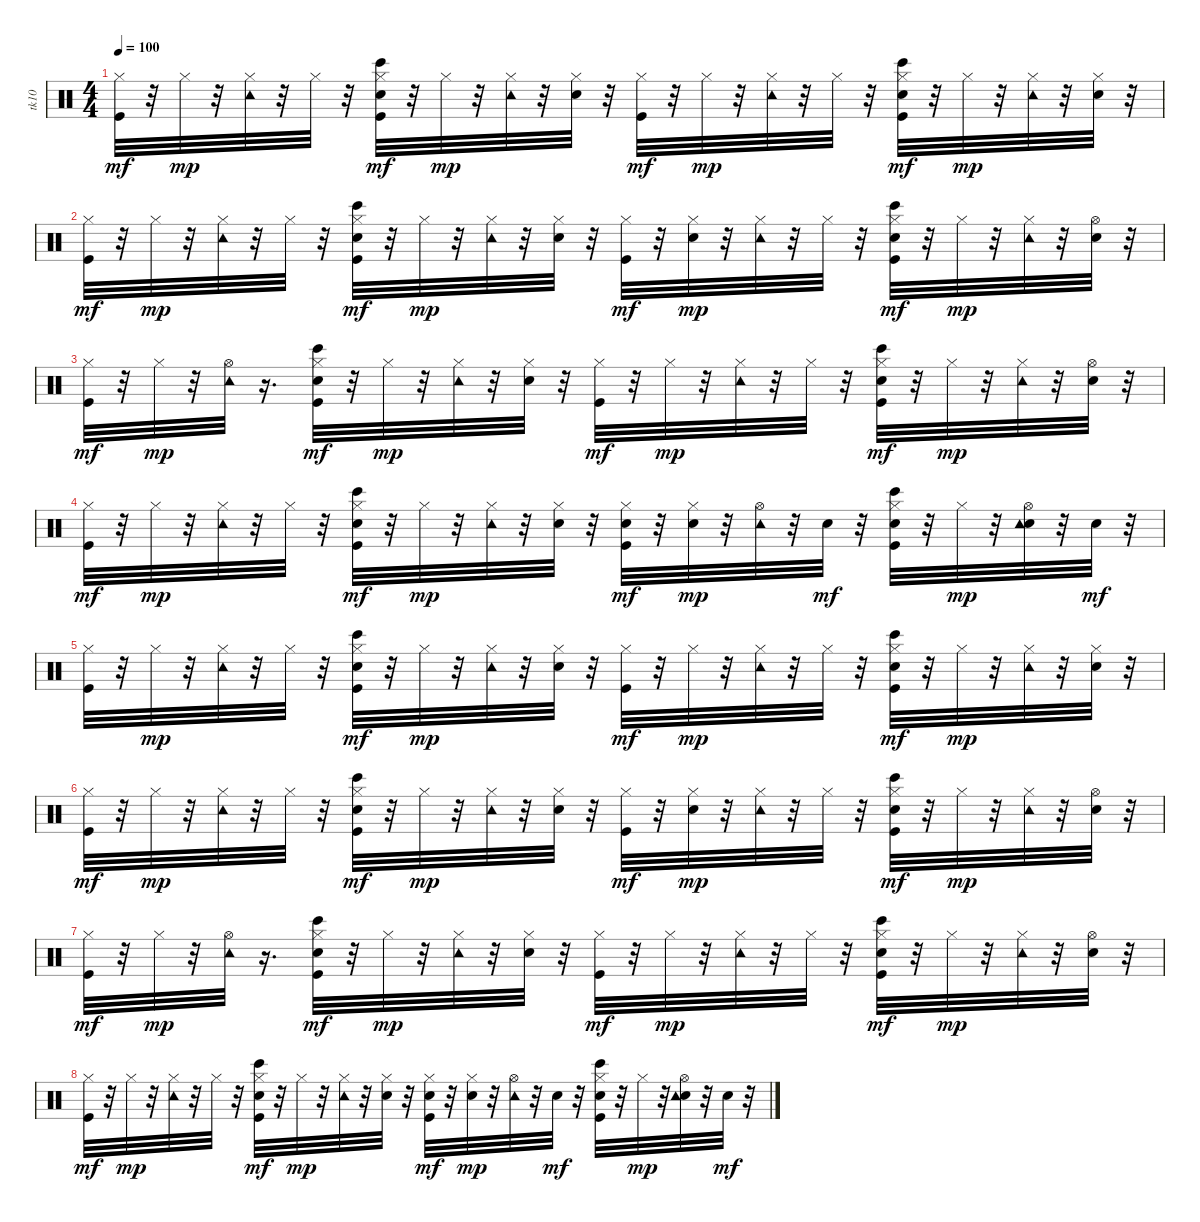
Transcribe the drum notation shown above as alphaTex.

\track ("tk10" "tk10") {instrument percussion}
\staff {score}
\articulation defaults
\ts (4 4)
\tempo 100
\clef neutral
\ks c
("Kick (hit)" "Hi-Hat (closed)").32{dy mf} r.32 "Hi-Hat (closed)".32{dy mp} r.32 ("Hi-Hat (closed)" "Tambourine (hit)").32 r.32 "Hi-Hat (closed)".32 r.32 ("Kick (hit)" "Snare (hit) 2" "Hi-Hat (closed)" "Bongo High (hit)").32{dy mf} r.32 "Hi-Hat (closed)".32{dy mp} r.32 ("Hi-Hat (closed)" "Tambourine (hit)").32 r.32 ("Snare (hit) 2" "Hi-Hat (closed)").32 r.32 ("Kick (hit)" "Hi-Hat (closed)").32{dy mf} r.32 "Hi-Hat (closed)".32{dy mp} r.32 ("Hi-Hat (closed)" "Tambourine (hit)").32 r.32 "Hi-Hat (closed)".32 r.32 ("Kick (hit)" "Snare (hit) 2" "Hi-Hat (closed)" "Bongo High (hit)").32{dy mf} r.32 "Hi-Hat (closed)".32{dy mp} r.32 ("Hi-Hat (closed)" "Tambourine (hit)").32 r.32 ("Snare (hit) 2" "Hi-Hat (closed)").32 r.32 |
("Kick (hit)" "Hi-Hat (closed)").32{dy mf} r.32 "Hi-Hat (closed)".32{dy mp} r.32 ("Hi-Hat (closed)" "Tambourine (hit)").32 r.32 "Hi-Hat (closed)".32 r.32 ("Kick (hit)" "Snare (hit) 2" "Hi-Hat (closed)" "Bongo High (hit)").32{dy mf} r.32 "Hi-Hat (closed)".32{dy mp} r.32 ("Hi-Hat (closed)" "Tambourine (hit)").32 r.32 ("Snare (hit) 2" "Hi-Hat (closed)").32 r.32 ("Kick (hit)" "Hi-Hat (closed)").32{dy mf} r.32 ("Snare (hit) 2" "Hi-Hat (closed)").32{dy mp} r.32 ("Hi-Hat (closed)" "Tambourine (hit)").32 r.32 "Hi-Hat (closed)".32 r.32 ("Kick (hit)" "Snare (hit) 2" "Hi-Hat (closed)" "Bongo High (hit)").32{dy mf} r.32 "Hi-Hat (closed)".32{dy mp} r.32 ("Hi-Hat (closed)" "Tambourine (hit)").32 r.32 ("Snare (hit) 2" "Hi-Hat (open)").32 r.32 |
("Kick (hit)" "Hi-Hat (closed)").32{dy mf} r.32 "Hi-Hat (closed)".32{dy mp} r.32 ("Hi-Hat (open)" "Tambourine (hit)").32 r.16{d} ("Kick (hit)" "Snare (hit) 2" "Hi-Hat (closed)" "Bongo High (hit)").32{dy mf} r.32 "Hi-Hat (closed)".32{dy mp} r.32 ("Hi-Hat (closed)" "Tambourine (hit)").32 r.32 ("Snare (hit) 2" "Hi-Hat (closed)").32 r.32 ("Kick (hit)" "Hi-Hat (closed)").32{dy mf} r.32 "Hi-Hat (closed)".32{dy mp} r.32 ("Hi-Hat (closed)" "Tambourine (hit)").32 r.32 "Hi-Hat (closed)".32 r.32 ("Kick (hit)" "Snare (hit) 2" "Hi-Hat (closed)" "Bongo High (hit)").32{dy mf} r.32 "Hi-Hat (closed)".32{dy mp} r.32 ("Hi-Hat (closed)" "Tambourine (hit)").32 r.32 ("Snare (hit) 2" "Hi-Hat (open)").32 r.32 |
("Kick (hit)" "Hi-Hat (closed)").32{dy mf} r.32 "Hi-Hat (closed)".32{dy mp} r.32 ("Hi-Hat (closed)" "Tambourine (hit)").32 r.32 "Hi-Hat (closed)".32 r.32 ("Kick (hit)" "Snare (hit) 2" "Hi-Hat (closed)" "Bongo High (hit)").32{dy mf} r.32 "Hi-Hat (closed)".32{dy mp} r.32 ("Hi-Hat (closed)" "Tambourine (hit)").32 r.32 ("Snare (hit) 2" "Hi-Hat (closed)").32 r.32 ("Kick (hit)" "Snare (hit) 2" "Hi-Hat (closed)").32{dy mf} r.32 ("Snare (hit) 2" "Hi-Hat (closed)").32{dy mp} r.32 ("Hi-Hat (open)" "Tambourine (hit)").32 r.32 "Snare (hit) 2".32{dy mf} r.32 ("Kick (hit)" "Snare (hit) 2" "Hi-Hat (closed)" "Bongo High (hit)").32 r.32 "Hi-Hat (closed)".32{dy mp} r.32 ("Snare (hit) 2" "Hi-Hat (open)" "Tambourine (hit)").32 r.32 "Snare (hit) 2".32{dy mf} r.32 |
("Kick (hit)" "Hi-Hat (closed)").32 r.32 "Hi-Hat (closed)".32{dy mp} r.32 ("Hi-Hat (closed)" "Tambourine (hit)").32 r.32 "Hi-Hat (closed)".32 r.32 ("Kick (hit)" "Snare (hit) 2" "Hi-Hat (closed)" "Bongo High (hit)").32{dy mf} r.32 "Hi-Hat (closed)".32{dy mp} r.32 ("Hi-Hat (closed)" "Tambourine (hit)").32 r.32 ("Snare (hit) 2" "Hi-Hat (closed)").32 r.32 ("Kick (hit)" "Hi-Hat (closed)").32{dy mf} r.32 "Hi-Hat (closed)".32{dy mp} r.32 ("Hi-Hat (closed)" "Tambourine (hit)").32 r.32 "Hi-Hat (closed)".32 r.32 ("Kick (hit)" "Snare (hit) 2" "Hi-Hat (closed)" "Bongo High (hit)").32{dy mf} r.32 "Hi-Hat (closed)".32{dy mp} r.32 ("Hi-Hat (closed)" "Tambourine (hit)").32 r.32 ("Snare (hit) 2" "Hi-Hat (closed)").32 r.32 |
("Kick (hit)" "Hi-Hat (closed)").32{dy mf} r.32 "Hi-Hat (closed)".32{dy mp} r.32 ("Hi-Hat (closed)" "Tambourine (hit)").32 r.32 "Hi-Hat (closed)".32 r.32 ("Kick (hit)" "Snare (hit) 2" "Hi-Hat (closed)" "Bongo High (hit)").32{dy mf} r.32 "Hi-Hat (closed)".32{dy mp} r.32 ("Hi-Hat (closed)" "Tambourine (hit)").32 r.32 ("Snare (hit) 2" "Hi-Hat (closed)").32 r.32 ("Kick (hit)" "Hi-Hat (closed)").32{dy mf} r.32 ("Snare (hit) 2" "Hi-Hat (closed)").32{dy mp} r.32 ("Hi-Hat (closed)" "Tambourine (hit)").32 r.32 "Hi-Hat (closed)".32 r.32 ("Kick (hit)" "Snare (hit) 2" "Hi-Hat (closed)" "Bongo High (hit)").32{dy mf} r.32 "Hi-Hat (closed)".32{dy mp} r.32 ("Hi-Hat (closed)" "Tambourine (hit)").32 r.32 ("Snare (hit) 2" "Hi-Hat (open)").32 r.32 |
("Kick (hit)" "Hi-Hat (closed)").32{dy mf} r.32 "Hi-Hat (closed)".32{dy mp} r.32 ("Hi-Hat (open)" "Tambourine (hit)").32 r.16{d} ("Kick (hit)" "Snare (hit) 2" "Hi-Hat (closed)" "Bongo High (hit)").32{dy mf} r.32 "Hi-Hat (closed)".32{dy mp} r.32 ("Hi-Hat (closed)" "Tambourine (hit)").32 r.32 ("Snare (hit) 2" "Hi-Hat (closed)").32 r.32 ("Kick (hit)" "Hi-Hat (closed)").32{dy mf} r.32 "Hi-Hat (closed)".32{dy mp} r.32 ("Hi-Hat (closed)" "Tambourine (hit)").32 r.32 "Hi-Hat (closed)".32 r.32 ("Kick (hit)" "Snare (hit) 2" "Hi-Hat (closed)" "Bongo High (hit)").32{dy mf} r.32 "Hi-Hat (closed)".32{dy mp} r.32 ("Hi-Hat (closed)" "Tambourine (hit)").32 r.32 ("Snare (hit) 2" "Hi-Hat (open)").32 r.32 |
("Kick (hit)" "Hi-Hat (closed)").32{dy mf} r.32 "Hi-Hat (closed)".32{dy mp} r.32 ("Hi-Hat (closed)" "Tambourine (hit)").32 r.32 "Hi-Hat (closed)".32 r.32 ("Kick (hit)" "Snare (hit) 2" "Hi-Hat (closed)" "Bongo High (hit)").32{dy mf} r.32 "Hi-Hat (closed)".32{dy mp} r.32 ("Hi-Hat (closed)" "Tambourine (hit)").32 r.32 ("Snare (hit) 2" "Hi-Hat (closed)").32 r.32 ("Kick (hit)" "Snare (hit) 2" "Hi-Hat (closed)").32{dy mf} r.32 ("Snare (hit) 2" "Hi-Hat (closed)").32{dy mp} r.32 ("Hi-Hat (open)" "Tambourine (hit)").32 r.32 "Snare (hit) 2".32{dy mf} r.32 ("Kick (hit)" "Snare (hit) 2" "Hi-Hat (closed)" "Bongo High (hit)").32 r.32 "Hi-Hat (closed)".32{dy mp} r.32 ("Snare (hit) 2" "Hi-Hat (open)" "Tambourine (hit)").32 r.32 "Snare (hit) 2".32{dy mf} r.32
